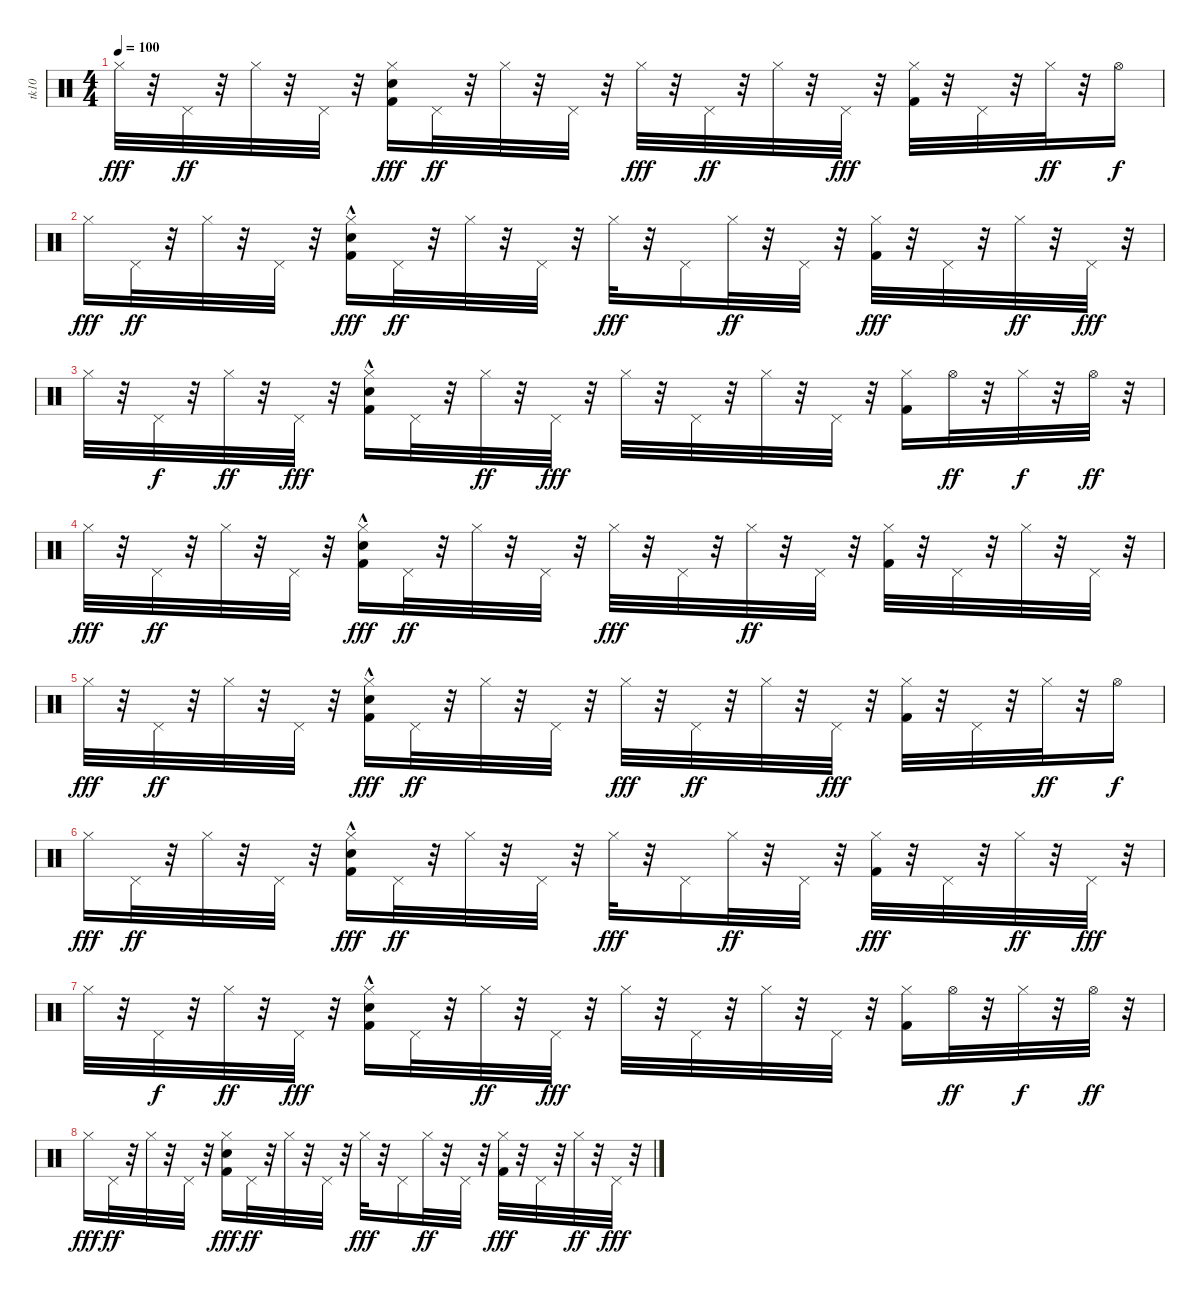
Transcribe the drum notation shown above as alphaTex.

\track ("tk10" "tk10") {instrument percussion}
\staff {score}
\articulation defaults
\ts (4 4)
\tempo 100
\clef neutral
\ks c "Hi-Hat (closed)".32{dy fff}
r.32 "Pedal Hi-Hat (hit)".32{dy ff} r.32 "Hi-Hat (closed)".32 r.32 "Pedal Hi-Hat (hit)".32 r.32 ("Kick (hit) 2" "Hi-Hat (closed)" "Snare (hit) 2").16{dy fff} "Pedal Hi-Hat (hit)".32{dy ff} r.32 "Hi-Hat (closed)".32 r.32 "Pedal Hi-Hat (hit)".32 r.32 "Hi-Hat (closed)".32{dy fff} r.32 "Pedal Hi-Hat (hit)".32{dy ff} r.32 "Hi-Hat (closed)".32 r.32 "Pedal Hi-Hat (hit)".32{dy fff} r.32 ("Kick (hit) 2" "Hi-Hat (closed)").32 r.32 "Pedal Hi-Hat (hit)".32 r.32 "Hi-Hat (closed)".32{dy ff} r.32 "Hi-Hat (open)".16{dy f} |
"Hi-Hat (closed)".16{dy fff} "Pedal Hi-Hat (hit)".32{dy ff} r.32 "Hi-Hat (closed)".32 r.32 "Pedal Hi-Hat (hit)".32 r.32 ("Kick (hit) 2" "Hi-Hat (closed)" "Snare (hit) 2"{hac}).16{dy fff} "Pedal Hi-Hat (hit)".32{dy ff} r.32 "Hi-Hat (closed)".32 r.32 "Pedal Hi-Hat (hit)".32 r.32 "Hi-Hat (closed)".32{dy fff} r.32 "Pedal Hi-Hat (hit)".16 "Hi-Hat (closed)".32{dy ff} r.32 "Pedal Hi-Hat (hit)".32 r.32 ("Hi-Hat (closed)" "Kick (hit) 2").32{dy fff} r.32 "Pedal Hi-Hat (hit)".32 r.32 "Hi-Hat (closed)".32{dy ff} r.32 "Pedal Hi-Hat (hit)".32{dy fff} r.32 |
"Hi-Hat (closed)".32 r.32 "Pedal Hi-Hat (hit)".32{dy f} r.32 "Hi-Hat (closed)".32{dy ff} r.32 "Pedal Hi-Hat (hit)".32{dy fff} r.32 ("Kick (hit) 2" "Hi-Hat (closed)" "Snare (hit) 2"{hac}).16 "Pedal Hi-Hat (hit)".32 r.32 "Hi-Hat (closed)".32{dy ff} r.32 "Pedal Hi-Hat (hit)".32{dy fff} r.32 "Hi-Hat (closed)".32 r.32 "Pedal Hi-Hat (hit)".32 r.32 "Hi-Hat (closed)".32 r.32 "Pedal Hi-Hat (hit)".32 r.32 ("Hi-Hat (closed)" "Kick (hit) 2").16 "Hi-Hat (open)".32{dy ff} r.32 "Hi-Hat (closed)".32{dy f} r.32 "Hi-Hat (open)".32{dy ff} r.32 |
"Hi-Hat (closed)".32{dy fff} r.32 "Pedal Hi-Hat (hit)".32{dy ff} r.32 "Hi-Hat (closed)".32 r.32 "Pedal Hi-Hat (hit)".32 r.32 ("Snare (hit) 2"{hac} "Kick (hit) 2"{hac} "Hi-Hat (closed)").16{dy fff} "Pedal Hi-Hat (hit)".32{dy ff} r.32 "Hi-Hat (closed)".32 r.32 "Pedal Hi-Hat (hit)".32 r.32 "Hi-Hat (closed)".32{dy fff} r.32 "Pedal Hi-Hat (hit)".32 r.32 "Hi-Hat (closed)".32{dy ff} r.32 "Pedal Hi-Hat (hit)".32 r.32 ("Kick (hit) 2" "Hi-Hat (closed)").32 r.32 "Pedal Hi-Hat (hit)".32 r.32 "Hi-Hat (closed)".32 r.32 "Pedal Hi-Hat (hit)".32 r.32 |
"Hi-Hat (closed)".32{dy fff} r.32 "Pedal Hi-Hat (hit)".32{dy ff} r.32 "Hi-Hat (closed)".32 r.32 "Pedal Hi-Hat (hit)".32 r.32 ("Kick (hit) 2" "Hi-Hat (closed)" "Snare (hit) 2"{hac}).16{dy fff} "Pedal Hi-Hat (hit)".32{dy ff} r.32 "Hi-Hat (closed)".32 r.32 "Pedal Hi-Hat (hit)".32 r.32 "Hi-Hat (closed)".32{dy fff} r.32 "Pedal Hi-Hat (hit)".32{dy ff} r.32 "Hi-Hat (closed)".32 r.32 "Pedal Hi-Hat (hit)".32{dy fff} r.32 ("Kick (hit) 2" "Hi-Hat (closed)").32 r.32 "Pedal Hi-Hat (hit)".32 r.32 "Hi-Hat (closed)".32{dy ff} r.32 "Hi-Hat (open)".16{dy f} |
"Hi-Hat (closed)".16{dy fff} "Pedal Hi-Hat (hit)".32{dy ff} r.32 "Hi-Hat (closed)".32 r.32 "Pedal Hi-Hat (hit)".32 r.32 ("Kick (hit) 2" "Hi-Hat (closed)" "Snare (hit) 2"{hac}).16{dy fff} "Pedal Hi-Hat (hit)".32{dy ff} r.32 "Hi-Hat (closed)".32 r.32 "Pedal Hi-Hat (hit)".32 r.32 "Hi-Hat (closed)".32{dy fff} r.32 "Pedal Hi-Hat (hit)".16 "Hi-Hat (closed)".32{dy ff} r.32 "Pedal Hi-Hat (hit)".32 r.32 ("Hi-Hat (closed)" "Kick (hit) 2").32{dy fff} r.32 "Pedal Hi-Hat (hit)".32 r.32 "Hi-Hat (closed)".32{dy ff} r.32 "Pedal Hi-Hat (hit)".32{dy fff} r.32 |
"Hi-Hat (closed)".32 r.32 "Pedal Hi-Hat (hit)".32{dy f} r.32 "Hi-Hat (closed)".32{dy ff} r.32 "Pedal Hi-Hat (hit)".32{dy fff} r.32 ("Kick (hit) 2" "Hi-Hat (closed)" "Snare (hit) 2"{hac}).16 "Pedal Hi-Hat (hit)".32 r.32 "Hi-Hat (closed)".32{dy ff} r.32 "Pedal Hi-Hat (hit)".32{dy fff} r.32 "Hi-Hat (closed)".32 r.32 "Pedal Hi-Hat (hit)".32 r.32 "Hi-Hat (closed)".32 r.32 "Pedal Hi-Hat (hit)".32 r.32 ("Hi-Hat (closed)" "Kick (hit) 2").16 "Hi-Hat (open)".32{dy ff} r.32 "Hi-Hat (closed)".32{dy f} r.32 "Hi-Hat (open)".32{dy ff} r.32 |
"Hi-Hat (closed)".16{dy fff} "Pedal Hi-Hat (hit)".32{dy ff} r.32 "Hi-Hat (closed)".32 r.32 "Pedal Hi-Hat (hit)".32 r.32 ("Kick (hit) 2" "Hi-Hat (closed)" "Snare (hit) 2").16{dy fff} "Pedal Hi-Hat (hit)".32{dy ff} r.32 "Hi-Hat (closed)".32 r.32 "Pedal Hi-Hat (hit)".32 r.32 "Hi-Hat (closed)".32{dy fff} r.32 "Pedal Hi-Hat (hit)".16 "Hi-Hat (closed)".32{dy ff} r.32 "Pedal Hi-Hat (hit)".32 r.32 ("Hi-Hat (closed)" "Kick (hit) 2").32{dy fff} r.32 "Pedal Hi-Hat (hit)".32 r.32 "Hi-Hat (closed)".32{dy ff} r.32 "Pedal Hi-Hat (hit)".32{dy fff} r.32
